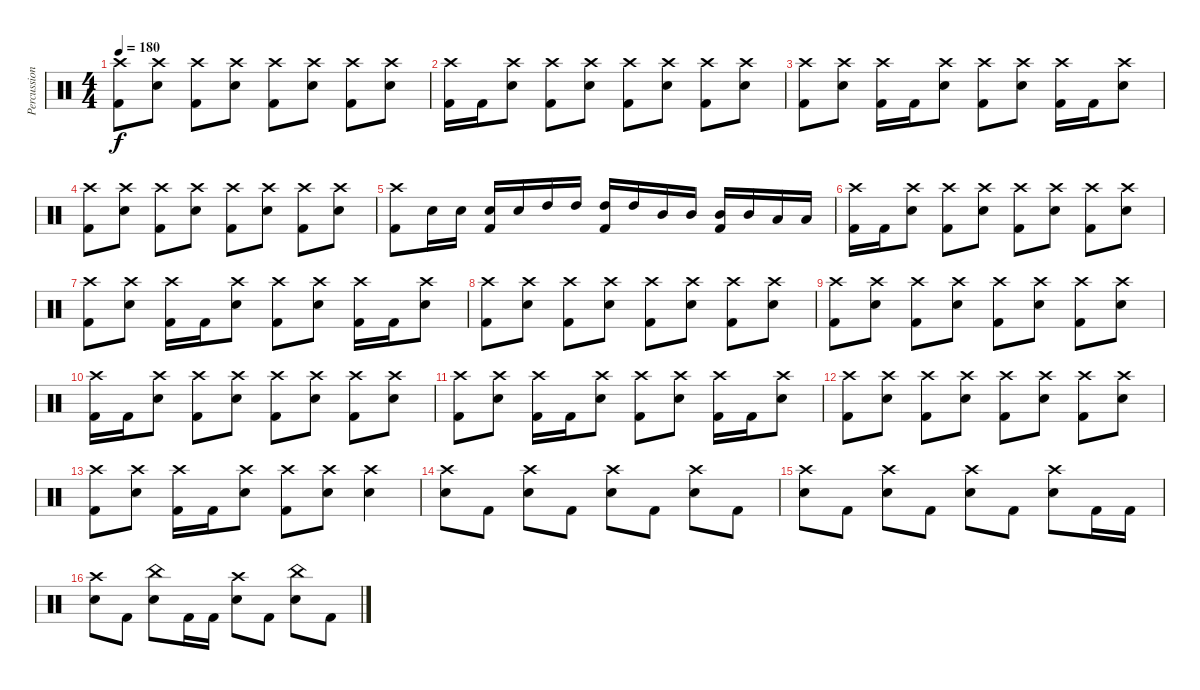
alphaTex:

\track ("Percussion" "Percussion") {instrument percussion}
\staff {score}
\articulation defaults
\ts (4 4)
\tempo 180
\clef neutral
\ks c
("Crash high (hit)" "Kick (hit) 2").8{dy f} ("Crash high (hit)" "Snare (hit) 2").8 ("Crash high (hit)" "Kick (hit) 2").8 ("Crash high (hit)" "Snare (hit) 2").8 ("Crash high (hit)" "Kick (hit) 2").8 ("Crash high (hit)" "Snare (hit) 2").8 ("Crash high (hit)" "Kick (hit) 2").8 ("Crash high (hit)" "Snare (hit) 2").8 |
("Crash high (hit)" "Kick (hit) 2").16 "Kick (hit) 2".16 ("Crash high (hit)" "Snare (hit) 2").8 ("Crash high (hit)" "Kick (hit) 2").8 ("Crash high (hit)" "Snare (hit) 2").8 ("Crash high (hit)" "Kick (hit) 2").8 ("Crash high (hit)" "Snare (hit) 2").8 ("Crash high (hit)" "Kick (hit) 2").8 ("Crash high (hit)" "Snare (hit) 2").8 |
("Crash high (hit)" "Kick (hit) 2").8 ("Crash high (hit)" "Snare (hit) 2").8 ("Crash high (hit)" "Kick (hit) 2").16 "Kick (hit) 2".16 ("Crash high (hit)" "Snare (hit) 2").8 ("Crash high (hit)" "Kick (hit) 2").8 ("Crash high (hit)" "Snare (hit) 2").8 ("Crash high (hit)" "Kick (hit) 2").16 "Kick (hit) 2".16 ("Crash high (hit)" "Snare (hit) 2").8 |
("Crash high (hit)" "Kick (hit) 2").8 ("Crash high (hit)" "Snare (hit) 2").8 ("Crash high (hit)" "Kick (hit) 2").8 ("Crash high (hit)" "Snare (hit) 2").8 ("Crash high (hit)" "Kick (hit) 2").8 ("Crash high (hit)" "Snare (hit) 2").8 ("Crash high (hit)" "Kick (hit) 2").8 ("Crash high (hit)" "Snare (hit) 2").8 |
("Crash high (hit)" "Kick (hit) 2").8 "Snare (hit) 2".16 "Snare (hit) 2".16 ("Snare (hit) 2" "Kick (hit) 2").16 "Snare (hit) 2".16 "High Tom (hit)".16 "High Tom (hit)".16 ("High Tom (hit)" "Kick (hit) 2").16 "High Tom (hit)".16 "Mid Tom (hit)".16 "Mid Tom (hit)".16 ("Mid Tom (hit)" "Kick (hit) 2").16 "Mid Tom (hit)".16 "Low Tom (hit)".16 "Low Tom (hit)".16 |
("Crash high (hit)" "Kick (hit) 2").16 "Kick (hit) 2".16 ("Crash high (hit)" "Snare (hit) 2").8 ("Crash high (hit)" "Kick (hit) 2").8 ("Crash high (hit)" "Snare (hit) 2").8 ("Crash high (hit)" "Kick (hit) 2").8 ("Crash high (hit)" "Snare (hit) 2").8 ("Crash high (hit)" "Kick (hit) 2").8 ("Crash high (hit)" "Snare (hit) 2").8 |
("Crash high (hit)" "Kick (hit) 2").8 ("Crash high (hit)" "Snare (hit) 2").8 ("Crash high (hit)" "Kick (hit) 2").16 "Kick (hit) 2".16 ("Crash high (hit)" "Snare (hit) 2").8 ("Crash high (hit)" "Kick (hit) 2").8 ("Crash high (hit)" "Snare (hit) 2").8 ("Crash high (hit)" "Kick (hit) 2").16 "Kick (hit) 2".16 ("Crash high (hit)" "Snare (hit) 2").8 |
("Crash high (hit)" "Kick (hit) 2").8 ("Crash high (hit)" "Snare (hit) 2").8 ("Crash high (hit)" "Kick (hit) 2").8 ("Crash high (hit)" "Snare (hit) 2").8 ("Crash high (hit)" "Kick (hit) 2").8 ("Crash high (hit)" "Snare (hit) 2").8 ("Crash high (hit)" "Kick (hit) 2").8 ("Crash high (hit)" "Snare (hit) 2").8 |
("Crash high (hit)" "Kick (hit) 2").8 ("Crash high (hit)" "Snare (hit) 2").8 ("Crash high (hit)" "Kick (hit) 2").8 ("Crash high (hit)" "Snare (hit) 2").8 ("Crash high (hit)" "Kick (hit) 2").8 ("Crash high (hit)" "Snare (hit) 2").8 ("Crash high (hit)" "Kick (hit) 2").8 ("Crash high (hit)" "Snare (hit) 2").8 |
("Crash high (hit)" "Kick (hit) 2").16 "Kick (hit) 2".16 ("Crash high (hit)" "Snare (hit) 2").8 ("Crash high (hit)" "Kick (hit) 2").8 ("Crash high (hit)" "Snare (hit) 2").8 ("Crash high (hit)" "Kick (hit) 2").8 ("Crash high (hit)" "Snare (hit) 2").8 ("Crash high (hit)" "Kick (hit) 2").8 ("Crash high (hit)" "Snare (hit) 2").8 |
("Crash high (hit)" "Kick (hit) 2").8 ("Crash high (hit)" "Snare (hit) 2").8 ("Crash high (hit)" "Kick (hit) 2").16 "Kick (hit) 2".16 ("Crash high (hit)" "Snare (hit) 2").8 ("Crash high (hit)" "Kick (hit) 2").8 ("Crash high (hit)" "Snare (hit) 2").8 ("Crash high (hit)" "Kick (hit) 2").16 "Kick (hit) 2".16 ("Crash high (hit)" "Snare (hit) 2").8 |
("Crash high (hit)" "Kick (hit) 2").8 ("Crash high (hit)" "Snare (hit) 2").8 ("Crash high (hit)" "Kick (hit) 2").8 ("Crash high (hit)" "Snare (hit) 2").8 ("Crash high (hit)" "Kick (hit) 2").8 ("Crash high (hit)" "Snare (hit) 2").8 ("Crash high (hit)" "Kick (hit) 2").8 ("Crash high (hit)" "Snare (hit) 2").8 |
("Crash high (hit)" "Kick (hit) 2").8 ("Crash high (hit)" "Snare (hit) 2").8 ("Crash high (hit)" "Kick (hit) 2").16 "Kick (hit) 2".16 ("Crash high (hit)" "Snare (hit) 2").8 ("Crash high (hit)" "Kick (hit) 2").8 ("Crash high (hit)" "Snare (hit) 2").8 ("Crash high (hit)" "Snare (hit) 2").4 |
("Crash high (hit)" "Snare (hit) 2").8 "Kick (hit) 2".8 ("Crash high (hit)" "Snare (hit) 2").8 "Kick (hit) 2".8 ("Crash high (hit)" "Snare (hit) 2").8 "Kick (hit) 2".8 ("Crash high (hit)" "Snare (hit) 2").8 "Kick (hit) 2".8 |
("Crash high (hit)" "Snare (hit) 2").8 "Kick (hit) 2".8 ("Crash high (hit)" "Snare (hit) 2").8 "Kick (hit) 2".8 ("Crash high (hit)" "Snare (hit) 2").8 "Kick (hit) 2".8 ("Crash high (hit)" "Snare (hit) 2").8 "Kick (hit) 2".16 "Kick (hit) 2".16 |
("Crash high (hit)" "Snare (hit) 2").8 "Kick (hit) 2".8 ("China (hit)" "Snare (hit) 2").8 "Kick (hit) 2".16 "Kick (hit) 2".16 ("Crash high (hit)" "Snare (hit) 2").8 "Kick (hit) 2".8 ("China (hit)" "Snare (hit) 2").8 "Kick (hit) 2".8
